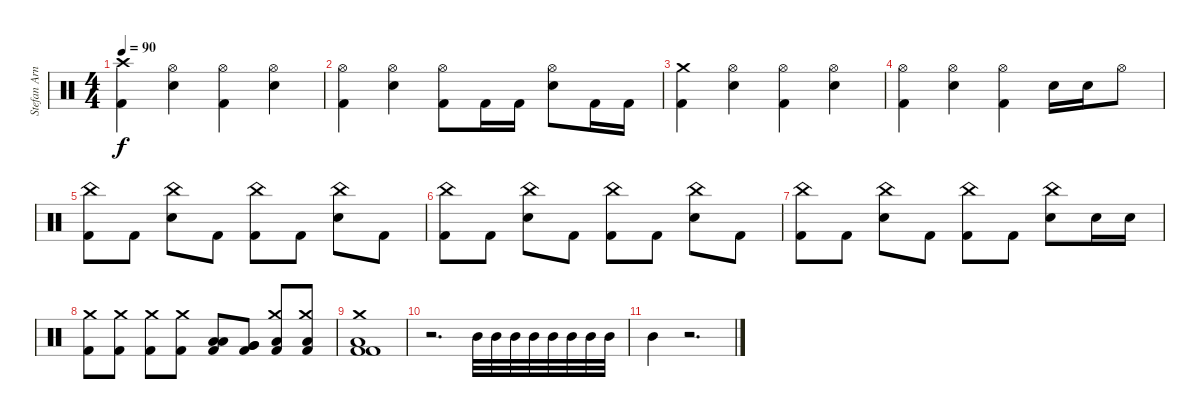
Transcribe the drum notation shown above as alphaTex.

\track ("Stefan Arnold" "Stefan Arn") {instrument percussion}
\staff {score}
\articulation defaults
\ts (4 4)
\tempo 90
\clef neutral
\ks c
("Crash high (hit)" "Kick (hit) 2").4{dy f} ("Hi-Hat (open)" "Electric Snare (hit)").4 ("Hi-Hat (open)" "Kick (hit) 2").4 ("Hi-Hat (open)" "Electric Snare (hit)").4 |
("Hi-Hat (open)" "Kick (hit) 2").4 ("Hi-Hat (open)" "Electric Snare (hit)").4 ("Hi-Hat (open)" "Kick (hit) 2").8 "Kick (hit) 2".16 "Kick (hit) 2".16 ("Hi-Hat (open)" "Electric Snare (hit)").8 "Kick (hit) 2".16 "Kick (hit) 2".16 |
("Crash medium (hit)" "Kick (hit) 2").4 ("Hi-Hat (open)" "Electric Snare (hit)").4 ("Hi-Hat (open)" "Kick (hit) 2").4 ("Hi-Hat (open)" "Electric Snare (hit)").4 |
("Hi-Hat (open)" "Kick (hit) 2").4 ("Hi-Hat (open)" "Electric Snare (hit)").4 ("Hi-Hat (open)" "Kick (hit) 2").4 "Electric Snare (hit)".16 "Electric Snare (hit)".16 "Hi-Hat (open)".8 |
("China (hit)" "Kick (hit) 2").8 "Kick (hit) 2".8 ("China (hit)" "Electric Snare (hit)").8 "Kick (hit) 2".8 ("China (hit)" "Kick (hit) 2").8 "Kick (hit) 2".8 ("China (hit)" "Electric Snare (hit)").8 "Kick (hit) 2".8 |
("China (hit)" "Kick (hit) 2").8 "Kick (hit) 2".8 ("China (hit)" "Electric Snare (hit)").8 "Kick (hit) 2".8 ("China (hit)" "Kick (hit) 2").8 "Kick (hit) 2".8 ("China (hit)" "Electric Snare (hit)").8 "Kick (hit) 2".8 |
("China (hit)" "Kick (hit) 2").8 "Kick (hit) 2".8 ("China (hit)" "Electric Snare (hit)").8 "Kick (hit) 2".8 ("China (hit)" "Kick (hit) 2").8 "Kick (hit) 2".8 ("China (hit)" "Electric Snare (hit)").8 "Electric Snare (hit)".16 "Electric Snare (hit)".16 |
("Crash medium (hit)" "Kick (hit) 2").8 ("Crash medium (hit)" "Kick (hit) 2").8 ("Crash medium (hit)" "Kick (hit) 2").8 ("Crash medium (hit)" "Kick (hit) 2").8 ("Low Tom (hit)" "Low Tom (hit)" "Kick (hit) 2").8 ("Very Low Tom (hit)" "Very Low Tom (hit)" "Kick (hit) 2").8 ("Crash medium (hit)" "Low Floor Tom (hit)" "Kick (hit) 2").8 ("Crash medium (hit)" "Low Floor Tom (hit)" "Kick (hit) 2").8 |
("Crash medium (hit)" "Low Floor Tom (hit)" "Kick (hit) 2" "Kick (hit) 2").1 |
r.2{d} "Mid Tom (hit)".32 "Mid Tom (hit)".32 "Mid Tom (hit)".32 "Mid Tom (hit)".32 "Mid Tom (hit)".32 "Mid Tom (hit)".32 "Mid Tom (hit)".32 "Mid Tom (hit)".32 |
"Mid Tom (hit)".4 r.2{d}
